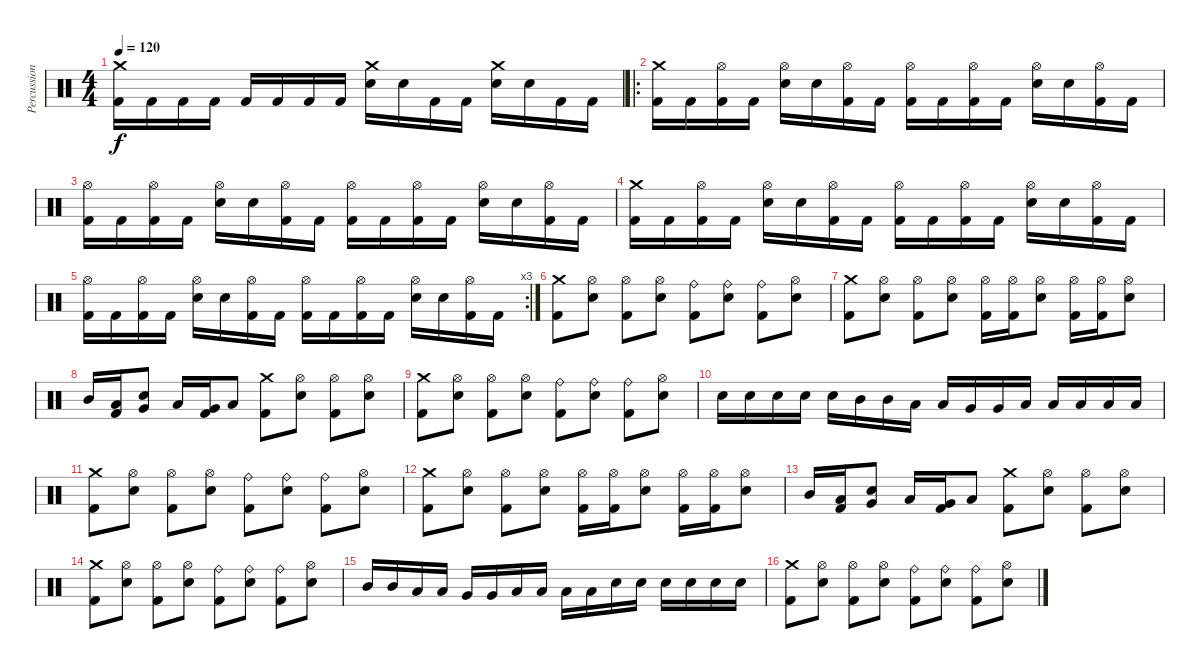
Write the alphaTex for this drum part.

\track ("Percussion" "Percussion") {instrument percussion}
\staff {score}
\articulation defaults
\ts (4 4)
\tempo 120
\clef neutral
\ks c
("Crash medium (hit)" "Kick (hit) 2").16{dy f} "Kick (hit) 2".16 "Kick (hit) 2".16 "Kick (hit) 2".16 "Kick (hit) 2".16 "Kick (hit) 2".16 "Kick (hit) 2".16 "Kick (hit) 2".16 ("Crash medium (hit)" "Snare (hit) 2").16 "Snare (hit) 2".16 "Kick (hit) 2".16 "Kick (hit) 2".16 ("Crash medium (hit)" "Snare (hit) 2").16 "Snare (hit) 2".16 "Kick (hit) 2".16 "Kick (hit) 2".16 |
\ro
("Crash medium (hit)" "Kick (hit) 2").16 "Kick (hit) 2".16 ("Hi-Hat (open)" "Kick (hit) 2").16 "Kick (hit) 2".16 ("Hi-Hat (open)" "Snare (hit) 2").16 "Snare (hit) 2".16 ("Hi-Hat (open)" "Kick (hit) 2").16 "Kick (hit) 2".16 ("Hi-Hat (open)" "Kick (hit) 2").16 "Kick (hit) 2".16 ("Hi-Hat (open)" "Kick (hit) 2").16 "Kick (hit) 2".16 ("Hi-Hat (open)" "Snare (hit) 2").16 "Snare (hit) 2".16 ("Hi-Hat (open)" "Kick (hit) 2").16 "Kick (hit) 2".16 |
("Hi-Hat (open)" "Kick (hit) 2").16 "Kick (hit) 2".16 ("Hi-Hat (open)" "Kick (hit) 2").16 "Kick (hit) 2".16 ("Hi-Hat (open)" "Snare (hit) 2").16 "Snare (hit) 2".16 ("Hi-Hat (open)" "Kick (hit) 2").16 "Kick (hit) 2".16 ("Hi-Hat (open)" "Kick (hit) 2").16 "Kick (hit) 2".16 ("Hi-Hat (open)" "Kick (hit) 2").16 "Kick (hit) 2".16 ("Hi-Hat (open)" "Snare (hit) 2").16 "Snare (hit) 2".16 ("Hi-Hat (open)" "Kick (hit) 2").16 "Kick (hit) 2".16 |
("Crash medium (hit)" "Kick (hit) 2").16 "Kick (hit) 2".16 ("Hi-Hat (open)" "Kick (hit) 2").16 "Kick (hit) 2".16 ("Hi-Hat (open)" "Snare (hit) 2").16 "Snare (hit) 2".16 ("Hi-Hat (open)" "Kick (hit) 2").16 "Kick (hit) 2".16 ("Hi-Hat (open)" "Kick (hit) 2").16 "Kick (hit) 2".16 ("Hi-Hat (open)" "Kick (hit) 2").16 "Kick (hit) 2".16 ("Hi-Hat (open)" "Snare (hit) 2").16 "Snare (hit) 2".16 ("Hi-Hat (open)" "Kick (hit) 2").16 "Kick (hit) 2".16 |
\rc 3
("Hi-Hat (open)" "Kick (hit) 2").16 "Kick (hit) 2".16 ("Hi-Hat (open)" "Kick (hit) 2").16 "Kick (hit) 2".16 ("Hi-Hat (open)" "Snare (hit) 2").16 "Snare (hit) 2".16 ("Hi-Hat (open)" "Kick (hit) 2").16 "Kick (hit) 2".16 ("Hi-Hat (open)" "Kick (hit) 2").16 "Kick (hit) 2".16 ("Hi-Hat (open)" "Kick (hit) 2").16 "Kick (hit) 2".16 ("Hi-Hat (open)" "Snare (hit) 2").16 "Snare (hit) 2".16 ("Hi-Hat (open)" "Kick (hit) 2").16 "Kick (hit) 2".16 |
("Crash medium (hit)" "Kick (hit) 2").8 ("Hi-Hat (open)" "Snare (hit) 2").8 ("Hi-Hat (open)" "Kick (hit) 2").8 ("Hi-Hat (open)" "Snare (hit) 2").8 ("Ride (bell)" "Kick (hit) 2").8 ("Ride (bell)" "Snare (hit) 2").8 ("Ride (bell)" "Kick (hit) 2").8 ("Hi-Hat (open)" "Snare (hit) 2").8 |
("Crash medium (hit)" "Kick (hit) 2").8 ("Hi-Hat (open)" "Snare (hit) 2").8 ("Hi-Hat (open)" "Kick (hit) 2").8 ("Hi-Hat (open)" "Snare (hit) 2").8 ("Hi-Hat (open)" "Kick (hit) 2").16 ("Hi-Hat (open)" "Kick (hit) 2").16 ("Hi-Hat (open)" "Snare (hit) 2").8 ("Hi-Hat (open)" "Kick (hit) 2").16 ("Hi-Hat (open)" "Kick (hit) 2").16 ("Hi-Hat (open)" "Snare (hit) 2").8 |
"Mid Tom (hit)".16 ("Low Tom (hit)" "Kick (hit) 2").16 ("Very Low Tom (hit)" "Snare (hit) 2").8 "Low Tom (hit)".16 ("Very Low Tom (hit)" "Kick (hit) 2").16 "Low Floor Tom (hit)".8 ("Crash medium (hit)" "Kick (hit) 2").8 ("Hi-Hat (open)" "Snare (hit) 2").8 ("Hi-Hat (open)" "Kick (hit) 2").8 ("Hi-Hat (open)" "Snare (hit) 2").8 |
("Crash medium (hit)" "Kick (hit) 2").8 ("Hi-Hat (open)" "Snare (hit) 2").8 ("Hi-Hat (open)" "Kick (hit) 2").8 ("Hi-Hat (open)" "Snare (hit) 2").8 ("Ride (bell)" "Kick (hit) 2").8 ("Ride (bell)" "Snare (hit) 2").8 ("Ride (bell)" "Kick (hit) 2").8 ("Hi-Hat (open)" "Snare (hit) 2").8 |
"Snare (hit) 2".16 "Snare (hit) 2".16 "Snare (hit) 2".16 "Snare (hit) 2".16 "Snare (hit) 2".16 "Mid Tom (hit)".16 "Mid Tom (hit)".16 "Low Tom (hit)".16 "Low Tom (hit)".16 "Very Low Tom (hit)".16 "Very Low Tom (hit)".16 "Low Floor Tom (hit)".16 "Low Floor Tom (hit)".16 "Low Floor Tom (hit)".16 "Low Floor Tom (hit)".16 "Low Floor Tom (hit)".16 |
("Crash medium (hit)" "Kick (hit) 2").8 ("Hi-Hat (open)" "Snare (hit) 2").8 ("Hi-Hat (open)" "Kick (hit) 2").8 ("Hi-Hat (open)" "Snare (hit) 2").8 ("Ride (bell)" "Kick (hit) 2").8 ("Ride (bell)" "Snare (hit) 2").8 ("Ride (bell)" "Kick (hit) 2").8 ("Hi-Hat (open)" "Snare (hit) 2").8 |
("Crash medium (hit)" "Kick (hit) 2").8 ("Hi-Hat (open)" "Snare (hit) 2").8 ("Hi-Hat (open)" "Kick (hit) 2").8 ("Hi-Hat (open)" "Snare (hit) 2").8 ("Hi-Hat (open)" "Kick (hit) 2").16 ("Hi-Hat (open)" "Kick (hit) 2").16 ("Hi-Hat (open)" "Snare (hit) 2").8 ("Hi-Hat (open)" "Kick (hit) 2").16 ("Hi-Hat (open)" "Kick (hit) 2").16 ("Hi-Hat (open)" "Snare (hit) 2").8 |
"Mid Tom (hit)".16 ("Low Tom (hit)" "Kick (hit) 2").16 ("Very Low Tom (hit)" "Snare (hit) 2").8 "Low Tom (hit)".16 ("Very Low Tom (hit)" "Kick (hit) 2").16 "Low Floor Tom (hit)".8 ("Crash medium (hit)" "Kick (hit) 2").8 ("Hi-Hat (open)" "Snare (hit) 2").8 ("Hi-Hat (open)" "Kick (hit) 2").8 ("Hi-Hat (open)" "Snare (hit) 2").8 |
("Crash medium (hit)" "Kick (hit) 2").8 ("Hi-Hat (open)" "Snare (hit) 2").8 ("Hi-Hat (open)" "Kick (hit) 2").8 ("Hi-Hat (open)" "Snare (hit) 2").8 ("Ride (bell)" "Kick (hit) 2").8 ("Ride (bell)" "Snare (hit) 2").8 ("Ride (bell)" "Kick (hit) 2").8 ("Hi-Hat (open)" "Snare (hit) 2").8 |
"Mid Tom (hit)".16 "Mid Tom (hit)".16 "Low Tom (hit)".16 "Low Tom (hit)".16 "Very Low Tom (hit)".16 "Very Low Tom (hit)".16 "Low Floor Tom (hit)".16 "Low Floor Tom (hit)".16 "Low Floor Tom (hit)".16 "Low Floor Tom (hit)".16 "Snare (hit) 2".16 "Snare (hit) 2".16 "Snare (hit) 2".16 "Snare (hit) 2".16 "Snare (hit) 2".16 "Snare (hit) 2".16 |
("Crash medium (hit)" "Kick (hit) 2").8 ("Hi-Hat (open)" "Snare (hit) 2").8 ("Hi-Hat (open)" "Kick (hit) 2").8 ("Hi-Hat (open)" "Snare (hit) 2").8 ("Ride (bell)" "Kick (hit) 2").8 ("Ride (bell)" "Snare (hit) 2").8 ("Ride (bell)" "Kick (hit) 2").8 ("Hi-Hat (open)" "Snare (hit) 2").8
